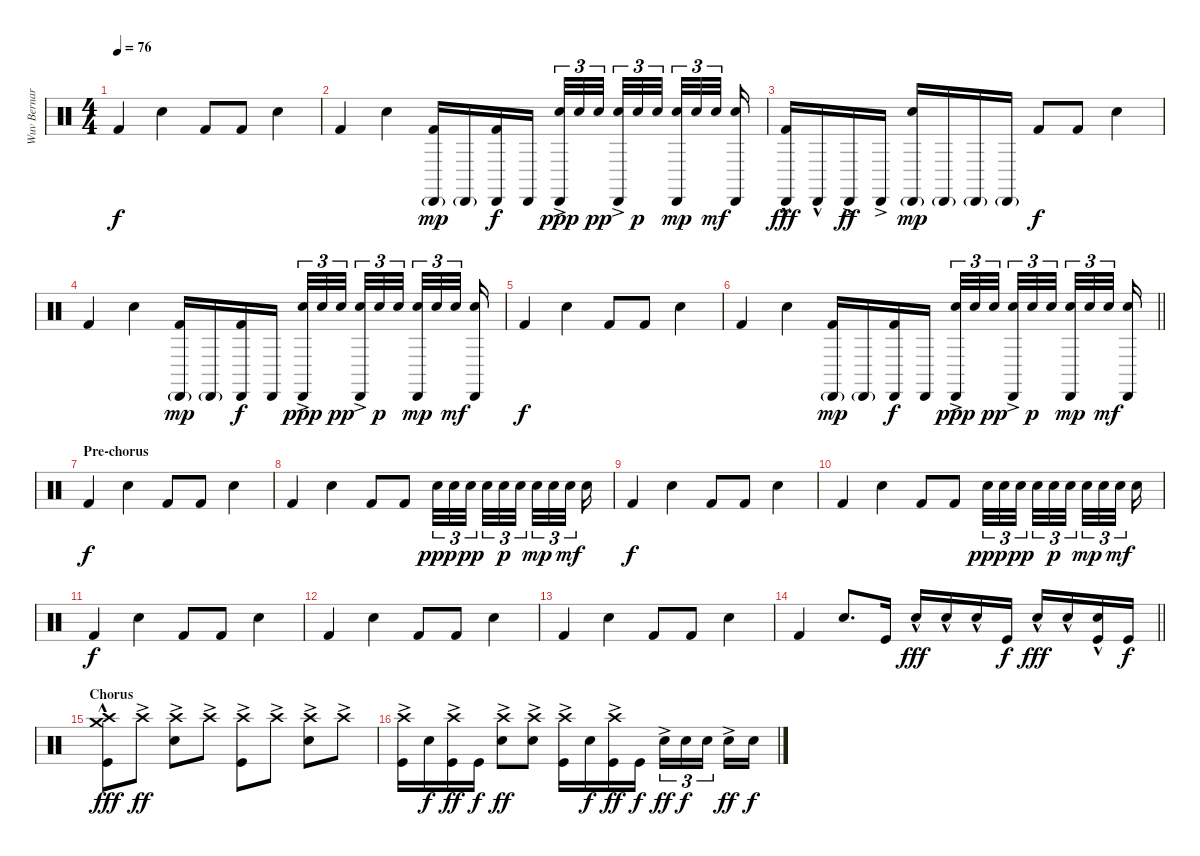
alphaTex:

\track ("Wuv Bernardo" "Wuv Bernar") {instrument percussion}
\staff {score}
\articulation defaults
\ts (4 4)
\tempo 76
\clef neutral
\ks c "Kick (hit) 2".4{dy f} "Snare (hit) 2".4 "Kick (hit) 2".8 "Kick (hit) 2".8 "Snare (hit) 2".4
|
"Kick (hit) 2".4 "Snare (hit) 2".4 ("Cabasa (hit)"{g} "Kick (hit) 2").16{dy mp} "Cabasa (hit)"{g}.16 ("Cabasa (hit)" "Kick (hit) 2").16{dy f} "Cabasa (hit)".16 ("Cabasa (hit)"{ac} "Snare (hit) 2").32{tu (3 2) dy ppp} "Snare (hit) 2".32{tu (3 2)} "Snare (hit) 2".32{tu (3 2) dy pp beam splitsecondary} ("Cabasa (hit)"{ac} "Snare (hit) 2").32{tu (3 2)} "Snare (hit) 2".32{tu (3 2) dy p} "Snare (hit) 2".32{tu (3 2) beam splitsecondary} ("Cabasa (hit)" "Snare (hit) 2").32{tu (3 2) dy mp} "Snare (hit) 2".32{tu (3 2)} "Snare (hit) 2".32{tu (3 2) dy mf beam splitsecondary} ("Cabasa (hit)" "Snare (hit) 2").16 |
("Cabasa (hit)"{hac} "Kick (hit) 2").16{dy fff} "Cabasa (hit)"{hac}.16 "Cabasa (hit)"{ac}.16{dy ff} "Cabasa (hit)"{ac}.16 ("Cabasa (hit)"{g} "Snare (hit) 2").16{dy mp} "Cabasa (hit)"{g}.16 "Cabasa (hit)"{g}.16 "Cabasa (hit)"{g}.16 "Kick (hit) 2".8{dy f} "Kick (hit) 2".8 "Snare (hit) 2".4 |
"Kick (hit) 2".4 "Snare (hit) 2".4 ("Cabasa (hit)"{g} "Kick (hit) 2").16{dy mp} "Cabasa (hit)"{g}.16 ("Cabasa (hit)" "Kick (hit) 2").16{dy f} "Cabasa (hit)".16 ("Cabasa (hit)"{ac} "Snare (hit) 2").32{tu (3 2) dy ppp} "Snare (hit) 2".32{tu (3 2)} "Snare (hit) 2".32{tu (3 2) dy pp beam splitsecondary} ("Cabasa (hit)"{ac} "Snare (hit) 2").32{tu (3 2)} "Snare (hit) 2".32{tu (3 2) dy p} "Snare (hit) 2".32{tu (3 2) beam splitsecondary} ("Cabasa (hit)" "Snare (hit) 2").32{tu (3 2) dy mp} "Snare (hit) 2".32{tu (3 2)} "Snare (hit) 2".32{tu (3 2) dy mf beam splitsecondary} ("Cabasa (hit)" "Snare (hit) 2").16 |
"Kick (hit) 2".4{dy f} "Snare (hit) 2".4 "Kick (hit) 2".8 "Kick (hit) 2".8 "Snare (hit) 2".4 |
\barLineRight lightlight "Kick (hit) 2".4 "Snare (hit) 2".4
("Cabasa (hit)"{g} "Kick (hit) 2").16{dy mp} "Cabasa (hit)"{g}.16 ("Cabasa (hit)" "Kick (hit) 2").16{dy f} "Cabasa (hit)".16 ("Cabasa (hit)"{ac} "Snare (hit) 2").32{tu (3 2) dy ppp} "Snare (hit) 2".32{tu (3 2)} "Snare (hit) 2".32{tu (3 2) dy pp beam splitsecondary} ("Cabasa (hit)"{ac} "Snare (hit) 2").32{tu (3 2)} "Snare (hit) 2".32{tu (3 2) dy p} "Snare (hit) 2".32{tu (3 2) beam splitsecondary} ("Cabasa (hit)" "Snare (hit) 2").32{tu (3 2) dy mp} "Snare (hit) 2".32{tu (3 2)} "Snare (hit) 2".32{tu (3 2) dy mf beam splitsecondary} ("Cabasa (hit)" "Snare (hit) 2").16 |
\section ("" "Pre-chorus")
"Kick (hit) 2".4{dy f} "Snare (hit) 2".4 "Kick (hit) 2".8 "Kick (hit) 2".8 "Snare (hit) 2".4 |
"Kick (hit) 2".4 "Snare (hit) 2".4 "Kick (hit) 2".8 "Kick (hit) 2".8 "Snare (hit) 2".32{tu (3 2) dy ppp} "Snare (hit) 2".32{tu (3 2)} "Snare (hit) 2".32{tu (3 2) dy pp beam splitsecondary} "Snare (hit) 2".32{tu (3 2)} "Snare (hit) 2".32{tu (3 2) dy p} "Snare (hit) 2".32{tu (3 2) beam splitsecondary} "Snare (hit) 2".32{tu (3 2) dy mp} "Snare (hit) 2".32{tu (3 2)} "Snare (hit) 2".32{tu (3 2) dy mf beam splitsecondary} "Snare (hit) 2".16 |
"Kick (hit) 2".4{dy f} "Snare (hit) 2".4 "Kick (hit) 2".8 "Kick (hit) 2".8 "Snare (hit) 2".4 |
"Kick (hit) 2".4 "Snare (hit) 2".4 "Kick (hit) 2".8 "Kick (hit) 2".8 "Snare (hit) 2".32{tu (3 2) dy ppp} "Snare (hit) 2".32{tu (3 2)} "Snare (hit) 2".32{tu (3 2) dy pp beam splitsecondary} "Snare (hit) 2".32{tu (3 2)} "Snare (hit) 2".32{tu (3 2) dy p} "Snare (hit) 2".32{tu (3 2) beam splitsecondary} "Snare (hit) 2".32{tu (3 2) dy mp} "Snare (hit) 2".32{tu (3 2)} "Snare (hit) 2".32{tu (3 2) dy mf beam splitsecondary} "Snare (hit) 2".16 |
"Kick (hit) 2".4{dy f} "Snare (hit) 2".4 "Kick (hit) 2".8 "Kick (hit) 2".8 "Snare (hit) 2".4 |
"Kick (hit) 2".4 "Snare (hit) 2".4 "Kick (hit) 2".8 "Kick (hit) 2".8 "Snare (hit) 2".4 |
"Kick (hit) 2".4 "Snare (hit) 2".4 "Kick (hit) 2".8 "Kick (hit) 2".8 "Snare (hit) 2".4 |
\barLineRight lightlight "Kick (hit) 2".4 "Snare (hit) 2".8{d} "Kick (hit)".16 "Snare (hit) 2"{hac}.16{dy fff} "Snare (hit) 2"{hac}.16 "Snare (hit) 2"{hac}.16 "Kick (hit)".16{dy f} "Snare (hit) 2"{hac}.16{dy fff} "Snare (hit) 2"{hac}.16
("Snare (hit) 2"{hac} "Kick (hit)").16 "Kick (hit)".16{dy f} |
\section ("" "Chorus")
("Crash medium (hit)"{hac} "Crash high (hit)"{hac} "Kick (hit)").8{dy fff} "Crash high (hit)"{ac}.8{dy ff} ("Crash high (hit)"{ac} "Snare (hit) 2").8 "Crash high (hit)"{ac}.8 ("Crash high (hit)"{ac} "Kick (hit)").8 "Crash high (hit)"{ac}.8 ("Crash high (hit)"{ac} "Snare (hit) 2").8 "Crash high (hit)"{ac}.8 |
("Crash high (hit)"{ac} "Kick (hit)").16 "Snare (hit) 2".16{dy f} ("Crash high (hit)"{ac} "Kick (hit)").16{dy ff} "Kick (hit)".16{dy f} ("Crash high (hit)"{ac} "Snare (hit) 2").8{dy ff} ("Crash high (hit)"{ac} "Snare (hit) 2").8 ("Crash high (hit)"{ac} "Kick (hit)").16 "Snare (hit) 2".16{dy f} ("Crash high (hit)"{ac} "Kick (hit)").16{dy ff} "Kick (hit)".16{dy f} "Snare (hit) 2"{ac}.16{tu (3 2) dy ff} "Snare (hit) 2".16{tu (3 2) dy f} "Snare (hit) 2".16{tu (3 2) beam splitsecondary} "Snare (hit) 2"{ac}.16{dy ff} "Snare (hit) 2".16{dy f}
